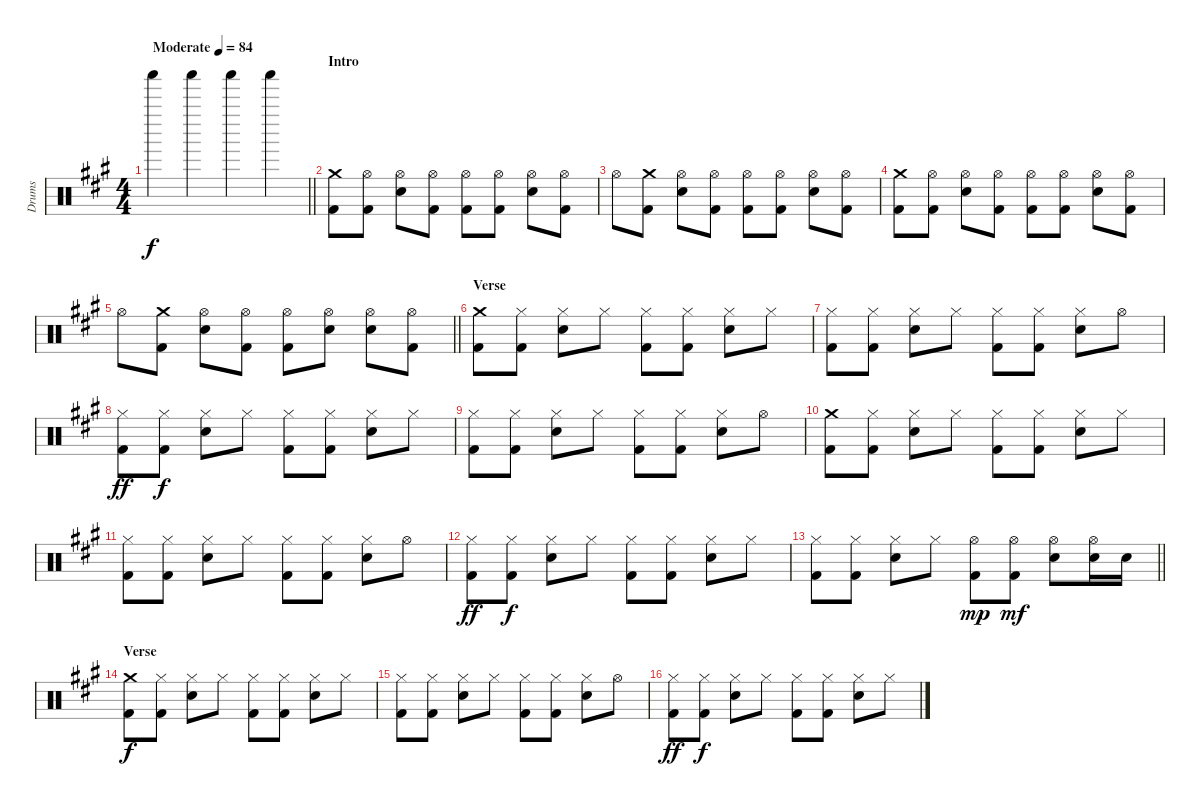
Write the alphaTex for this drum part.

\track ("Drums" "Drums") {instrument percussion}
\staff {score}
\articulation defaults
\ts (4 4)
\tempo (84 "Moderate")
\clef neutral
\barLineRight lightlight
\ks a "Shaker (hit)".4{dy f} "Shaker (hit)".4 "Shaker (hit)".4 "Shaker (hit)".4
|
\section ("" "Intro")
("Crash medium (hit)" "Kick (hit) 2").8 ("Hi-Hat (open)" "Kick (hit) 2").8 ("Hi-Hat (open)" "Electric Snare (hit)").8 ("Hi-Hat (open)" "Kick (hit) 2").8 ("Hi-Hat (open)" "Kick (hit) 2").8 ("Hi-Hat (open)" "Kick (hit) 2").8 ("Hi-Hat (open)" "Electric Snare (hit)").8 ("Hi-Hat (open)" "Kick (hit) 2").8 |
"Hi-Hat (open)".8 ("Crash medium (hit)" "Kick (hit) 2").8 ("Hi-Hat (open)" "Electric Snare (hit)").8 ("Hi-Hat (open)" "Kick (hit) 2").8 ("Hi-Hat (open)" "Kick (hit) 2").8 ("Hi-Hat (open)" "Kick (hit) 2").8 ("Hi-Hat (open)" "Electric Snare (hit)").8 ("Hi-Hat (open)" "Kick (hit) 2").8 |
("Crash medium (hit)" "Kick (hit) 2").8 ("Hi-Hat (open)" "Kick (hit) 2").8 ("Hi-Hat (open)" "Electric Snare (hit)").8 ("Hi-Hat (open)" "Kick (hit) 2").8 ("Hi-Hat (open)" "Kick (hit) 2").8 ("Hi-Hat (open)" "Kick (hit) 2").8 ("Hi-Hat (open)" "Electric Snare (hit)").8 ("Hi-Hat (open)" "Kick (hit) 2").8 |
\barLineRight lightlight "Hi-Hat (open)".8
("Crash medium (hit)" "Kick (hit) 2").8 ("Hi-Hat (open)" "Electric Snare (hit)").8 ("Hi-Hat (open)" "Kick (hit) 2").8 ("Hi-Hat (open)" "Kick (hit) 2").8 ("Hi-Hat (open)" "Electric Snare (hit)").8 ("Hi-Hat (open)" "Electric Snare (hit)").8 ("Hi-Hat (open)" "Kick (hit) 2").8 |
\section ("" "Verse")
("Crash medium (hit)" "Kick (hit) 2").8 ("Hi-Hat (closed)" "Kick (hit) 2").8 ("Hi-Hat (closed)" "Electric Snare (hit)").8 "Hi-Hat (closed)".8 ("Hi-Hat (closed)" "Kick (hit) 2").8 ("Hi-Hat (closed)" "Kick (hit) 2").8 ("Hi-Hat (closed)" "Electric Snare (hit)").8 "Hi-Hat (closed)".8 |
("Hi-Hat (closed)" "Kick (hit) 2").8 ("Hi-Hat (closed)" "Kick (hit) 2").8 ("Hi-Hat (closed)" "Electric Snare (hit)").8 "Hi-Hat (closed)".8 ("Hi-Hat (closed)" "Kick (hit) 2").8 ("Hi-Hat (closed)" "Kick (hit) 2").8 ("Hi-Hat (closed)" "Electric Snare (hit)").8 "Hi-Hat (open)".8 |
("Hi-Hat (closed)" "Kick (hit) 2").8{dy ff} ("Hi-Hat (closed)" "Kick (hit) 2").8{dy f} ("Hi-Hat (closed)" "Electric Snare (hit)").8 "Hi-Hat (closed)".8 ("Hi-Hat (closed)" "Kick (hit) 2").8 ("Hi-Hat (closed)" "Kick (hit) 2").8 ("Hi-Hat (closed)" "Electric Snare (hit)").8 "Hi-Hat (closed)".8 |
("Hi-Hat (closed)" "Kick (hit) 2").8 ("Hi-Hat (closed)" "Kick (hit) 2").8 ("Hi-Hat (closed)" "Electric Snare (hit)").8 "Hi-Hat (closed)".8 ("Hi-Hat (closed)" "Kick (hit) 2").8 ("Hi-Hat (closed)" "Kick (hit) 2").8 ("Hi-Hat (closed)" "Electric Snare (hit)").8 "Hi-Hat (open)".8 |
("Crash medium (hit)" "Kick (hit) 2").8 ("Hi-Hat (closed)" "Kick (hit) 2").8 ("Hi-Hat (closed)" "Electric Snare (hit)").8 "Hi-Hat (closed)".8 ("Hi-Hat (closed)" "Kick (hit) 2").8 ("Hi-Hat (closed)" "Kick (hit) 2").8 ("Hi-Hat (closed)" "Electric Snare (hit)").8 "Hi-Hat (closed)".8 |
("Hi-Hat (closed)" "Kick (hit) 2").8 ("Hi-Hat (closed)" "Kick (hit) 2").8 ("Hi-Hat (closed)" "Electric Snare (hit)").8 "Hi-Hat (closed)".8 ("Hi-Hat (closed)" "Kick (hit) 2").8 ("Hi-Hat (closed)" "Kick (hit) 2").8 ("Hi-Hat (closed)" "Electric Snare (hit)").8 "Hi-Hat (open)".8 |
("Hi-Hat (closed)" "Kick (hit) 2").8{dy ff} ("Hi-Hat (closed)" "Kick (hit) 2").8{dy f} ("Hi-Hat (closed)" "Electric Snare (hit)").8 "Hi-Hat (closed)".8 ("Hi-Hat (closed)" "Kick (hit) 2").8 ("Hi-Hat (closed)" "Kick (hit) 2").8 ("Hi-Hat (closed)" "Electric Snare (hit)").8 "Hi-Hat (closed)".8 |
\barLineRight lightlight
("Hi-Hat (closed)" "Kick (hit) 2").8 ("Hi-Hat (closed)" "Kick (hit) 2").8 ("Hi-Hat (closed)" "Electric Snare (hit)").8 "Hi-Hat (closed)".8 ("Hi-Hat (open)" "Kick (hit) 2").8{dy mp} ("Hi-Hat (open)" "Kick (hit) 2").8{dy mf} ("Hi-Hat (open)" "Electric Snare (hit)").8 ("Hi-Hat (open)" "Electric Snare (hit)").16 "Electric Snare (hit)".16 |
\section ("" "Verse")
("Crash medium (hit)" "Kick (hit) 2").8{dy f} ("Hi-Hat (closed)" "Kick (hit) 2").8 ("Hi-Hat (closed)" "Electric Snare (hit)").8 "Hi-Hat (closed)".8 ("Hi-Hat (closed)" "Kick (hit) 2").8 ("Hi-Hat (closed)" "Kick (hit) 2").8 ("Hi-Hat (closed)" "Electric Snare (hit)").8 "Hi-Hat (closed)".8 |
("Hi-Hat (closed)" "Kick (hit) 2").8 ("Hi-Hat (closed)" "Kick (hit) 2").8 ("Hi-Hat (closed)" "Electric Snare (hit)").8 "Hi-Hat (closed)".8 ("Hi-Hat (closed)" "Kick (hit) 2").8 ("Hi-Hat (closed)" "Kick (hit) 2").8 ("Hi-Hat (closed)" "Electric Snare (hit)").8 "Hi-Hat (open)".8 |
("Hi-Hat (closed)" "Kick (hit) 2").8{dy ff} ("Hi-Hat (closed)" "Kick (hit) 2").8{dy f} ("Hi-Hat (closed)" "Electric Snare (hit)").8 "Hi-Hat (closed)".8 ("Hi-Hat (closed)" "Kick (hit) 2").8 ("Hi-Hat (closed)" "Kick (hit) 2").8 ("Hi-Hat (closed)" "Electric Snare (hit)").8 "Hi-Hat (closed)".8
